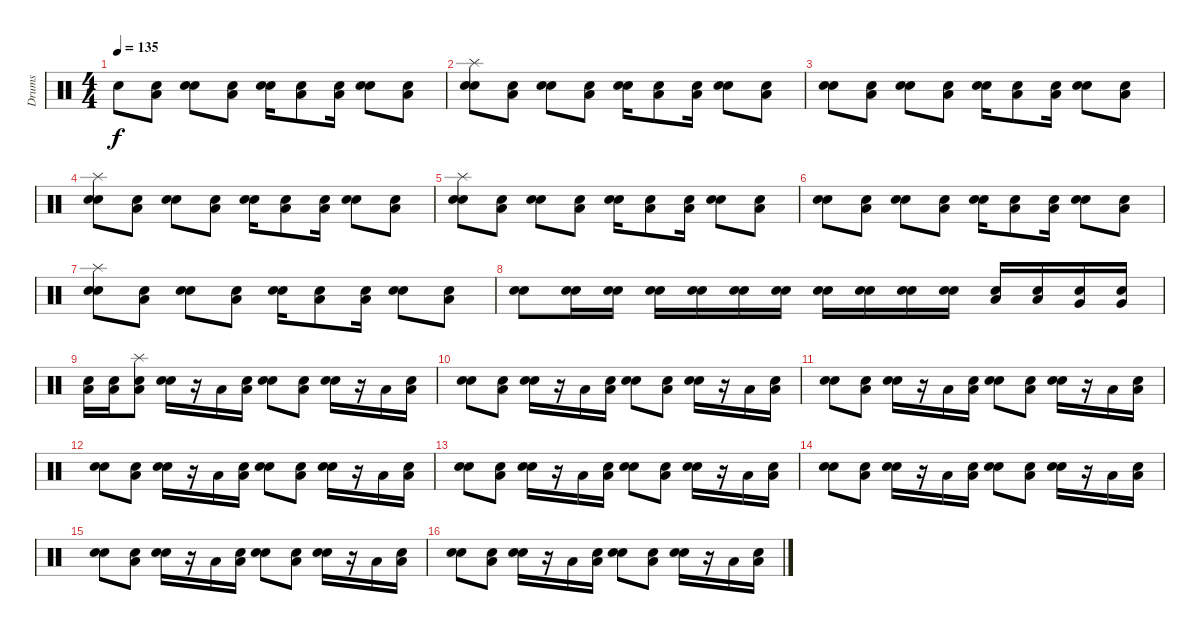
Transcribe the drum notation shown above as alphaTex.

\track ("Drums" "Drums") {instrument percussion}
\staff {score}
\articulation defaults
\ts (4 4)
\tempo 135
\clef neutral
\ks c "Electric Snare (hit)".8{dy f}
("Snare (hit)" "Low Floor Tom (hit)").8 ("Snare (hit)" "Electric Snare (hit)").8 ("Snare (hit)" "Low Floor Tom (hit)").8 ("Snare (hit)" "Electric Snare (hit)").16 ("Snare (hit)" "Low Floor Tom (hit)").8 ("Snare (hit)" "Low Floor Tom (hit)").16 ("Snare (hit)" "Electric Snare (hit)").8 ("Snare (hit)" "Low Floor Tom (hit)").8 |
("Snare (hit)" "Electric Snare (hit)" "Splash (hit)").8 ("Snare (hit)" "Low Floor Tom (hit)").8 ("Snare (hit)" "Electric Snare (hit)").8 ("Snare (hit)" "Low Floor Tom (hit)").8 ("Snare (hit)" "Electric Snare (hit)").16 ("Snare (hit)" "Low Floor Tom (hit)").8 ("Snare (hit)" "Low Floor Tom (hit)").16 ("Snare (hit)" "Electric Snare (hit)").8 ("Snare (hit)" "Low Floor Tom (hit)").8 |
("Snare (hit)" "Electric Snare (hit)").8 ("Snare (hit)" "Low Floor Tom (hit)").8 ("Snare (hit)" "Electric Snare (hit)").8 ("Snare (hit)" "Low Floor Tom (hit)").8 ("Snare (hit)" "Electric Snare (hit)").16 ("Snare (hit)" "Low Floor Tom (hit)").8 ("Snare (hit)" "Low Floor Tom (hit)").16 ("Snare (hit)" "Electric Snare (hit)").8 ("Snare (hit)" "Low Floor Tom (hit)").8 |
("Snare (hit)" "Electric Snare (hit)" "Splash (hit)").8 ("Snare (hit)" "Low Floor Tom (hit)").8 ("Snare (hit)" "Electric Snare (hit)").8 ("Snare (hit)" "Low Floor Tom (hit)").8 ("Snare (hit)" "Electric Snare (hit)").16 ("Snare (hit)" "Low Floor Tom (hit)").8 ("Snare (hit)" "Low Floor Tom (hit)").16 ("Snare (hit)" "Electric Snare (hit)").8 ("Snare (hit)" "Low Floor Tom (hit)").8 |
("Snare (hit)" "Electric Snare (hit)" "Splash (hit)").8 ("Snare (hit)" "Low Floor Tom (hit)").8 ("Snare (hit)" "Electric Snare (hit)").8 ("Snare (hit)" "Low Floor Tom (hit)").8 ("Snare (hit)" "Electric Snare (hit)").16 ("Snare (hit)" "Low Floor Tom (hit)").8 ("Snare (hit)" "Low Floor Tom (hit)").16 ("Snare (hit)" "Electric Snare (hit)").8 ("Snare (hit)" "Low Floor Tom (hit)").8 |
("Snare (hit)" "Electric Snare (hit)").8 ("Snare (hit)" "Low Floor Tom (hit)").8 ("Snare (hit)" "Electric Snare (hit)").8 ("Snare (hit)" "Low Floor Tom (hit)").8 ("Snare (hit)" "Electric Snare (hit)").16 ("Snare (hit)" "Low Floor Tom (hit)").8 ("Snare (hit)" "Low Floor Tom (hit)").16 ("Snare (hit)" "Electric Snare (hit)").8 ("Snare (hit)" "Low Floor Tom (hit)").8 |
("Snare (hit)" "Electric Snare (hit)" "Splash (hit)").8 ("Snare (hit)" "Low Floor Tom (hit)").8 ("Snare (hit)" "Electric Snare (hit)").8 ("Snare (hit)" "Low Floor Tom (hit)").8 ("Snare (hit)" "Electric Snare (hit)").16 ("Snare (hit)" "Low Floor Tom (hit)").8 ("Snare (hit)" "Low Floor Tom (hit)").16 ("Snare (hit)" "Electric Snare (hit)").8 ("Snare (hit)" "Low Floor Tom (hit)").8 |
("Snare (hit)" "Electric Snare (hit)").8 ("Snare (hit)" "Electric Snare (hit)").16 ("Snare (hit)" "Electric Snare (hit)").16 ("Snare (hit)" "Electric Snare (hit)").16 ("Snare (hit)" "Electric Snare (hit)").16 ("Snare (hit)" "Electric Snare (hit)").16 ("Snare (hit)" "Electric Snare (hit)").16 ("Snare (hit)" "Electric Snare (hit)").16 ("Snare (hit)" "Electric Snare (hit)").16 ("Snare (hit)" "Electric Snare (hit)").16 ("Snare (hit)" "Electric Snare (hit)").16 ("Snare (hit)" "Low Tom (hit)").16 ("Snare (hit)" "Low Tom (hit)").16 ("Snare (hit)" "Very Low Tom (hit)").16 ("Snare (hit)" "Very Low Tom (hit)").16 |
("Snare (hit)" "Low Floor Tom (hit)").16 ("Snare (hit)" "Low Floor Tom (hit)").16 ("Snare (hit)" "Low Floor Tom (hit)" "Splash (hit)").8 ("Snare (hit)" "Electric Snare (hit)").16 r.16 "Low Floor Tom (hit)".16 ("Snare (hit)" "Low Floor Tom (hit)").16 ("Snare (hit)" "Electric Snare (hit)").8 ("Snare (hit)" "Low Floor Tom (hit)").8 ("Snare (hit)" "Electric Snare (hit)").16 r.16 "Low Floor Tom (hit)".16 ("Snare (hit)" "Low Floor Tom (hit)").16 |
("Snare (hit)" "Electric Snare (hit)").8 ("Snare (hit)" "Low Floor Tom (hit)").8 ("Snare (hit)" "Electric Snare (hit)").16 r.16 "Low Floor Tom (hit)".16 ("Snare (hit)" "Low Floor Tom (hit)").16 ("Snare (hit)" "Electric Snare (hit)").8 ("Snare (hit)" "Low Floor Tom (hit)").8 ("Snare (hit)" "Electric Snare (hit)").16 r.16 "Low Floor Tom (hit)".16 ("Snare (hit)" "Low Floor Tom (hit)").16 |
("Snare (hit)" "Electric Snare (hit)").8 ("Snare (hit)" "Low Floor Tom (hit)").8 ("Snare (hit)" "Electric Snare (hit)").16 r.16 "Low Floor Tom (hit)".16 ("Snare (hit)" "Low Floor Tom (hit)").16 ("Snare (hit)" "Electric Snare (hit)").8 ("Snare (hit)" "Low Floor Tom (hit)").8 ("Snare (hit)" "Electric Snare (hit)").16 r.16 "Low Floor Tom (hit)".16 ("Snare (hit)" "Low Floor Tom (hit)").16 |
("Snare (hit)" "Electric Snare (hit)").8 ("Snare (hit)" "Low Floor Tom (hit)").8 ("Snare (hit)" "Electric Snare (hit)").16 r.16 "Low Floor Tom (hit)".16 ("Snare (hit)" "Low Floor Tom (hit)").16 ("Snare (hit)" "Electric Snare (hit)").8 ("Snare (hit)" "Low Floor Tom (hit)").8 ("Snare (hit)" "Electric Snare (hit)").16 r.16 "Low Floor Tom (hit)".16 ("Snare (hit)" "Low Floor Tom (hit)").16 |
("Snare (hit)" "Electric Snare (hit)").8 ("Snare (hit)" "Low Floor Tom (hit)").8 ("Snare (hit)" "Electric Snare (hit)").16 r.16 "Low Floor Tom (hit)".16 ("Snare (hit)" "Low Floor Tom (hit)").16 ("Snare (hit)" "Electric Snare (hit)").8 ("Snare (hit)" "Low Floor Tom (hit)").8 ("Snare (hit)" "Electric Snare (hit)").16 r.16 "Low Floor Tom (hit)".16 ("Snare (hit)" "Low Floor Tom (hit)").16 |
("Snare (hit)" "Electric Snare (hit)").8 ("Snare (hit)" "Low Floor Tom (hit)").8 ("Snare (hit)" "Electric Snare (hit)").16 r.16 "Low Floor Tom (hit)".16 ("Snare (hit)" "Low Floor Tom (hit)").16 ("Snare (hit)" "Electric Snare (hit)").8 ("Snare (hit)" "Low Floor Tom (hit)").8 ("Snare (hit)" "Electric Snare (hit)").16 r.16 "Low Floor Tom (hit)".16 ("Snare (hit)" "Low Floor Tom (hit)").16 |
("Snare (hit)" "Electric Snare (hit)").8 ("Snare (hit)" "Low Floor Tom (hit)").8 ("Snare (hit)" "Electric Snare (hit)").16 r.16 "Low Floor Tom (hit)".16 ("Snare (hit)" "Low Floor Tom (hit)").16 ("Snare (hit)" "Electric Snare (hit)").8 ("Snare (hit)" "Low Floor Tom (hit)").8 ("Snare (hit)" "Electric Snare (hit)").16 r.16 "Low Floor Tom (hit)".16 ("Snare (hit)" "Low Floor Tom (hit)").16 |
("Snare (hit)" "Electric Snare (hit)").8 ("Snare (hit)" "Low Floor Tom (hit)").8 ("Snare (hit)" "Electric Snare (hit)").16 r.16 "Low Floor Tom (hit)".16 ("Snare (hit)" "Low Floor Tom (hit)").16 ("Snare (hit)" "Electric Snare (hit)").8 ("Snare (hit)" "Low Floor Tom (hit)").8 ("Snare (hit)" "Electric Snare (hit)").16 r.16 "Low Floor Tom (hit)".16 ("Snare (hit)" "Low Floor Tom (hit)").16
